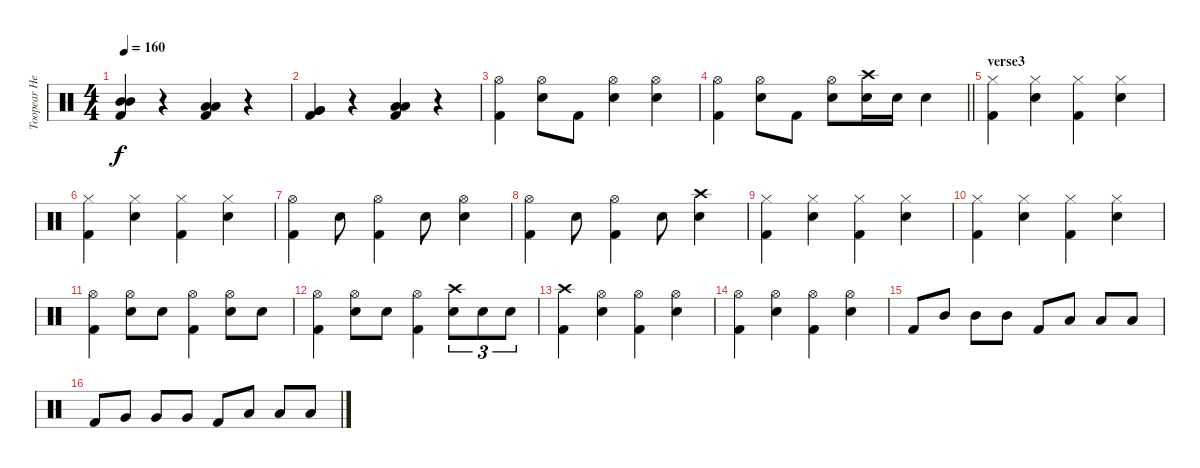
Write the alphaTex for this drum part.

\track ("Toopear Headon" "Toopear He") {instrument percussion}
\staff {score}
\articulation defaults
\ts (4 4)
\tempo 160
\clef neutral
\ks c
("Mid Tom (hit)" "Mid Tom (hit)" "Kick (hit) 2").4{dy f} r.4 ("Low Tom (hit)" "Low Tom (hit)" "Kick (hit) 2").4 r.4 |
("Very Low Tom (hit)" "Very Low Tom (hit)" "Kick (hit) 2").4 r.4 ("Low Floor Tom (hit)" "Low Floor Tom (hit)" "Kick (hit) 2").4 r.4 |
("Hi-Hat (open)" "Kick (hit) 2").4 ("Hi-Hat (open)" "Electric Snare (hit)").8 "Kick (hit) 2".8 ("Hi-Hat (open)" "Electric Snare (hit)").4 ("Hi-Hat (open)" "Electric Snare (hit)").4 |
\barLineRight lightlight
("Hi-Hat (open)" "Kick (hit) 2").4 ("Hi-Hat (open)" "Electric Snare (hit)").8 "Kick (hit) 2".8 ("Hi-Hat (open)" "Electric Snare (hit)").8 ("Crash high (hit)" "Electric Snare (hit)").16 "Electric Snare (hit)".16 "Electric Snare (hit)".4 |
\section ("" "verse3")
("Hi-Hat (closed)" "Kick (hit) 2").4 ("Hi-Hat (closed)" "Electric Snare (hit)").4 ("Hi-Hat (closed)" "Kick (hit) 2").4 ("Hi-Hat (closed)" "Electric Snare (hit)").4 |
("Hi-Hat (closed)" "Kick (hit) 2").4 ("Hi-Hat (closed)" "Electric Snare (hit)").4 ("Hi-Hat (closed)" "Kick (hit) 2").4 ("Hi-Hat (closed)" "Electric Snare (hit)").4 |
("Hi-Hat (open)" "Kick (hit) 2").4 "Electric Snare (hit)".8 ("Hi-Hat (open)" "Kick (hit) 2").4 "Electric Snare (hit)".8 ("Hi-Hat (open)" "Electric Snare (hit)").4 |
("Hi-Hat (open)" "Kick (hit) 2").4 "Electric Snare (hit)".8 ("Hi-Hat (open)" "Kick (hit) 2").4 "Electric Snare (hit)".8 ("Crash high (hit)" "Electric Snare (hit)").4 |
("Hi-Hat (closed)" "Kick (hit) 2").4 ("Hi-Hat (closed)" "Electric Snare (hit)").4 ("Hi-Hat (closed)" "Kick (hit) 2").4 ("Hi-Hat (closed)" "Electric Snare (hit)").4 |
("Hi-Hat (closed)" "Kick (hit) 2").4 ("Hi-Hat (closed)" "Electric Snare (hit)").4 ("Hi-Hat (closed)" "Kick (hit) 2").4 ("Hi-Hat (closed)" "Electric Snare (hit)").4 |
("Hi-Hat (open)" "Kick (hit) 2").4 ("Hi-Hat (open)" "Electric Snare (hit)").8 "Electric Snare (hit)".8 ("Hi-Hat (open)" "Kick (hit) 2").4 ("Hi-Hat (open)" "Electric Snare (hit)").8 "Electric Snare (hit)".8 |
("Hi-Hat (open)" "Kick (hit) 2").4 ("Hi-Hat (open)" "Electric Snare (hit)").8 "Electric Snare (hit)".8 ("Hi-Hat (open)" "Kick (hit) 2").4 ("Crash high (hit)" "Electric Snare (hit)").8{tu (3 2)} "Electric Snare (hit)".8{tu (3 2)} "Electric Snare (hit)".8{tu (3 2)} |
("Crash high (hit)" "Kick (hit) 2").4 ("Hi-Hat (open)" "Electric Snare (hit)").4 ("Hi-Hat (open)" "Kick (hit) 2").4 ("Hi-Hat (open)" "Electric Snare (hit)").4 |
("Hi-Hat (open)" "Kick (hit) 2").4 ("Hi-Hat (open)" "Electric Snare (hit)").4 ("Hi-Hat (open)" "Kick (hit) 2").4 ("Hi-Hat (open)" "Electric Snare (hit)").4 |
"Kick (hit) 2".8 "Mid Tom (hit)".8 "Mid Tom (hit)".8 "Mid Tom (hit)".8 "Kick (hit) 2".8 "Low Tom (hit)".8 "Low Tom (hit)".8 "Low Tom (hit)".8 |
"Kick (hit) 2".8 "Very Low Tom (hit)".8 "Very Low Tom (hit)".8 "Very Low Tom (hit)".8 "Kick (hit) 2".8 "Low Floor Tom (hit)".8 "Low Floor Tom (hit)".8 "Low Floor Tom (hit)".8
